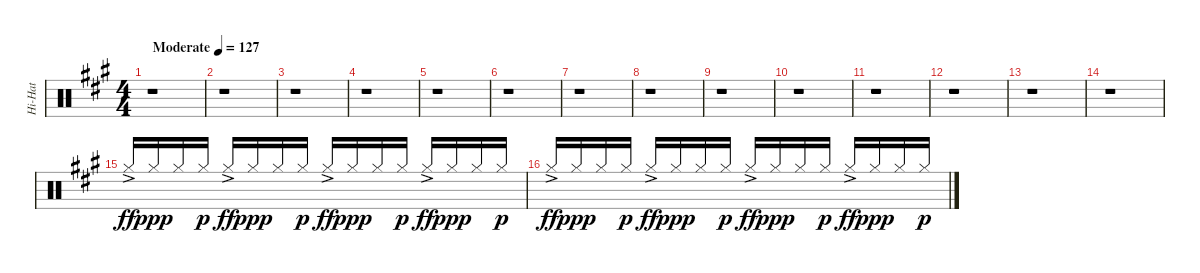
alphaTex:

\track ("Hi-Hat" "Hi-Hat") {instrument percussion}
\staff {score}
\articulation defaults
\ts (4 4)
\tempo (127 "Moderate")
\clef neutral
\ks a
r.1{dy ff balance 9} |
r.1 |
r.1 |
r.1 |
r.1 |
r.1 |
r.1 |
r.1 |
r.1 |
r.1 |
r.1 |
r.1 |
r.1 |
r.1 |
"Hi-Hat (closed)"{ac}.16{beam Up} "Hi-Hat (closed)".16{dy ppp beam Up} "Hi-Hat (closed)".16{beam Up} "Hi-Hat (closed)".16{dy p beam Up} "Hi-Hat (closed)"{ac}.16{dy ff beam Up} "Hi-Hat (closed)".16{dy ppp beam Up} "Hi-Hat (closed)".16{beam Up} "Hi-Hat (closed)".16{dy p beam Up} "Hi-Hat (closed)"{ac}.16{dy ff beam Up} "Hi-Hat (closed)".16{dy ppp beam Up} "Hi-Hat (closed)".16{beam Up} "Hi-Hat (closed)".16{dy p beam Up} "Hi-Hat (closed)"{ac}.16{dy ff beam Up} "Hi-Hat (closed)".16{dy ppp beam Up} "Hi-Hat (closed)".16{beam Up} "Hi-Hat (closed)".16{dy p beam Up} |
"Hi-Hat (closed)"{ac}.16{dy ff beam Up} "Hi-Hat (closed)".16{dy ppp beam Up} "Hi-Hat (closed)".16{beam Up} "Hi-Hat (closed)".16{dy p beam Up} "Hi-Hat (closed)"{ac}.16{dy ff beam Up} "Hi-Hat (closed)".16{dy ppp beam Up} "Hi-Hat (closed)".16{beam Up} "Hi-Hat (closed)".16{dy p beam Up} "Hi-Hat (closed)"{ac}.16{dy ff beam Up} "Hi-Hat (closed)".16{dy ppp beam Up} "Hi-Hat (closed)".16{beam Up} "Hi-Hat (closed)".16{dy p beam Up} "Hi-Hat (closed)"{ac}.16{dy ff beam Up} "Hi-Hat (closed)".16{dy ppp beam Up} "Hi-Hat (closed)".16{beam Up} "Hi-Hat (closed)".16{dy p beam Up}
